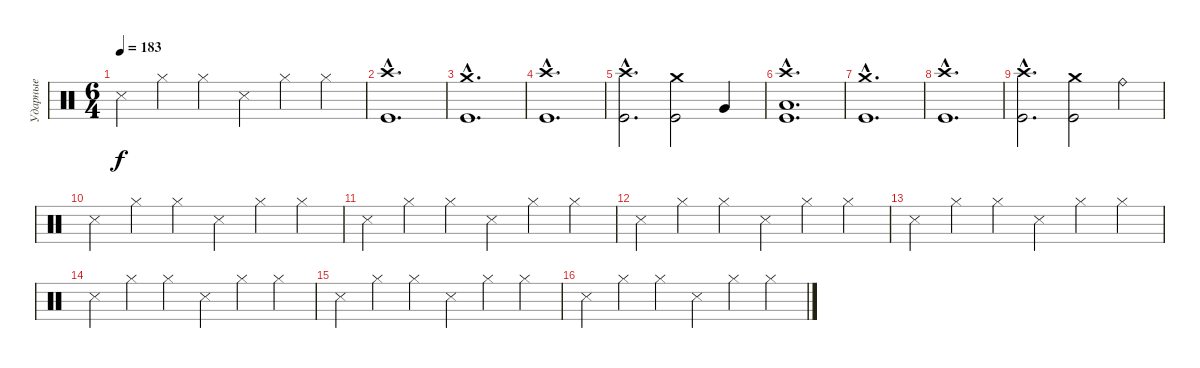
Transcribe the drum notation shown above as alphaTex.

\track ("Ударные" "Ударные") {instrument percussion}
\staff {score}
\articulation defaults
\ts (6 4)
\tempo 183
\clef neutral
\ks c "Snare (side stick) 3".4{dy f} "Hi-Hat (closed)".4 "Hi-Hat (closed)".4 "Snare (side stick) 3".4 "Hi-Hat (closed)".4 "Hi-Hat (closed)".4
|
("Crash high (hit)"{hac} "Kick (hit)"{hac}).1{d} |
("Crash medium (hit)"{hac} "Kick (hit)"{hac}).1{d} |
("Crash high (hit)"{hac} "Kick (hit)"{hac}).1{d} |
("Crash high (hit)"{hac} "Kick (hit)"{hac}).2{d} ("Crash medium (hit)" "Kick (hit)").2 "Very Low Tom (hit)".4 |
("Crash high (hit)"{hac} "Low Tom (hit)"{hac} "Kick (hit)"{hac}).1{d} |
("Crash medium (hit)"{hac} "Kick (hit)"{hac}).1{d} |
("Crash high (hit)"{hac} "Kick (hit)"{hac}).1{d} |
("Crash high (hit)"{hac} "Kick (hit)"{hac}).2{d} ("Crash medium (hit)" "Kick (hit)").2 "Ride (bell)".4 |
"Snare (side stick) 3".4 "Hi-Hat (closed)".4 "Hi-Hat (closed)".4 "Snare (side stick) 3".4 "Hi-Hat (closed)".4 "Hi-Hat (closed)".4 |
"Snare (side stick) 3".4 "Hi-Hat (closed)".4 "Hi-Hat (closed)".4 "Snare (side stick) 3".4 "Hi-Hat (closed)".4 "Hi-Hat (closed)".4 |
"Snare (side stick) 3".4 "Hi-Hat (closed)".4 "Hi-Hat (closed)".4 "Snare (side stick) 3".4 "Hi-Hat (closed)".4 "Hi-Hat (closed)".4 |
"Snare (side stick) 3".4 "Hi-Hat (closed)".4 "Hi-Hat (closed)".4 "Snare (side stick) 3".4 "Hi-Hat (closed)".4 "Hi-Hat (closed)".4 |
"Snare (side stick) 3".4 "Hi-Hat (closed)".4 "Hi-Hat (closed)".4 "Snare (side stick) 3".4 "Hi-Hat (closed)".4 "Hi-Hat (closed)".4 |
"Snare (side stick) 3".4 "Hi-Hat (closed)".4 "Hi-Hat (closed)".4 "Snare (side stick) 3".4 "Hi-Hat (closed)".4 "Hi-Hat (closed)".4 |
"Snare (side stick) 3".4 "Hi-Hat (closed)".4 "Hi-Hat (closed)".4 "Snare (side stick) 3".4 "Hi-Hat (closed)".4 "Hi-Hat (closed)".4
